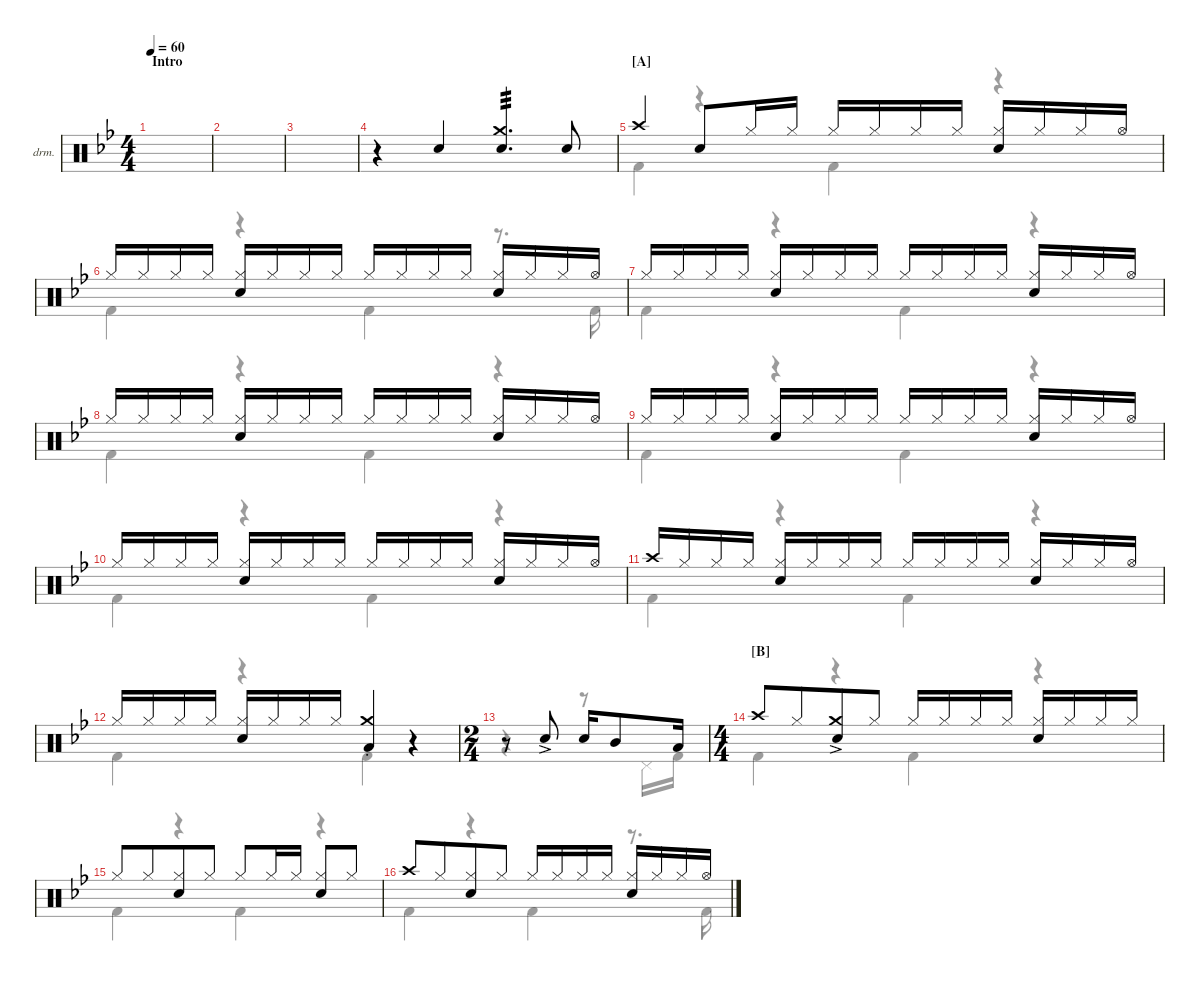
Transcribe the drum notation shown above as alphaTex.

\defaultSystemsLayout 4
\hideDynamics
\bracketExtendMode nobrackets
\firstSystemTrackNameOrientation horizontal
\otherSystemsTrackNameOrientation horizontal
\track ("Drumkit" "drm.") {instrument percussion}
\staff {score}
\articulation defaults
\voice
\ts (4 4)
\section ("" "Intro")
\tempo 60
\clef neutral
\ks bb
|
|
|
r.4{beam Down} "Snare (hit) 2"{acc forcenatural}.4{beam Up} ("Snare (hit) 2"{acc forcenatural} "Crash medium (hit)"{acc forcenatural}).4{d tp 3 beam Up} "Snare (hit) 2"{acc forcenatural}.8{beam Up} |
\section ("A" "")
"Crash high (hit)"{acc forcenatural}.4{beam Up} "Snare (hit) 2"{acc forcenatural}.8{beam Up} "Hi-Hat (closed)"{acc forcenatural}.16{beam Up} "Hi-Hat (closed)"{acc forcenatural}.16{dy mp beam Up} "Hi-Hat (closed)"{acc forcenatural}.16{dy mf beam Up} "Hi-Hat (closed)"{acc forcenatural}.16{dy mp beam Up} "Hi-Hat (closed)"{acc forcenatural}.16{dy mf beam Up} "Hi-Hat (closed)"{acc forcenatural}.16{dy mp beam Up} ("Hi-Hat (closed)"{acc forcenatural} "Snare (hit) 2"{acc forcenatural}).16{dy mf beam Up} "Hi-Hat (closed)"{acc forcenatural}.16{dy mp beam Up} "Hi-Hat (closed)"{acc forcenatural}.16{dy mf beam Up} "Hi-Hat (open)"{acc forcenatural}.16{beam Up} |
"Hi-Hat (closed)"{acc forcenatural}.16{beam Up} "Hi-Hat (closed)"{acc forcenatural}.16{dy mp beam Up} "Hi-Hat (closed)"{acc forcenatural}.16{dy mf beam Up} "Hi-Hat (closed)"{acc forcenatural}.16{dy mp beam Up} ("Hi-Hat (closed)"{acc forcenatural} "Snare (hit) 2"{acc forcenatural}).16{dy mf beam Up} "Hi-Hat (closed)"{acc forcenatural}.16{dy mp beam Up} "Hi-Hat (closed)"{acc forcenatural}.16{dy mf beam Up} "Hi-Hat (closed)"{acc forcenatural}.16{dy mp beam Up} "Hi-Hat (closed)"{acc forcenatural}.16{dy mf beam Up} "Hi-Hat (closed)"{acc forcenatural}.16{dy mp beam Up} "Hi-Hat (closed)"{acc forcenatural}.16{dy mf beam Up} "Hi-Hat (closed)"{acc forcenatural}.16{dy mp beam Up} ("Hi-Hat (closed)"{acc forcenatural} "Snare (hit) 2"{acc forcenatural}).16{dy mf beam Up} "Hi-Hat (closed)"{acc forcenatural}.16{dy mp beam Up} "Hi-Hat (closed)"{acc forcenatural}.16{dy mf beam Up} "Hi-Hat (open)"{acc forcenatural}.16{beam Up} |
"Hi-Hat (closed)"{acc forcenatural}.16{beam Up} "Hi-Hat (closed)"{acc forcenatural}.16{dy mp beam Up} "Hi-Hat (closed)"{acc forcenatural}.16{dy mf beam Up} "Hi-Hat (closed)"{acc forcenatural}.16{dy mp beam Up} ("Hi-Hat (closed)"{acc forcenatural} "Snare (hit) 2"{acc forcenatural}).16{dy mf beam Up} "Hi-Hat (closed)"{acc forcenatural}.16{dy mp beam Up} "Hi-Hat (closed)"{acc forcenatural}.16{dy mf beam Up} "Hi-Hat (closed)"{acc forcenatural}.16{dy mp beam Up} "Hi-Hat (closed)"{acc forcenatural}.16{dy mf beam Up} "Hi-Hat (closed)"{acc forcenatural}.16{dy mp beam Up} "Hi-Hat (closed)"{acc forcenatural}.16{dy mf beam Up} "Hi-Hat (closed)"{acc forcenatural}.16{dy mp beam Up} ("Hi-Hat (closed)"{acc forcenatural} "Snare (hit) 2"{acc forcenatural}).16{dy mf beam Up} "Hi-Hat (closed)"{acc forcenatural}.16{dy mp beam Up} "Hi-Hat (closed)"{acc forcenatural}.16{dy mf beam Up} "Hi-Hat (open)"{acc forcenatural}.16{beam Up} |
"Hi-Hat (closed)"{acc forcenatural}.16{beam Up} "Hi-Hat (closed)"{acc forcenatural}.16{dy mp beam Up} "Hi-Hat (closed)"{acc forcenatural}.16{dy mf beam Up} "Hi-Hat (closed)"{acc forcenatural}.16{dy mp beam Up} ("Hi-Hat (closed)"{acc forcenatural} "Snare (hit) 2"{acc forcenatural}).16{dy mf beam Up} "Hi-Hat (closed)"{acc forcenatural}.16{dy mp beam Up} "Hi-Hat (closed)"{acc forcenatural}.16{dy mf beam Up} "Hi-Hat (closed)"{acc forcenatural}.16{dy mp beam Up} "Hi-Hat (closed)"{acc forcenatural}.16{dy mf beam Up} "Hi-Hat (closed)"{acc forcenatural}.16{dy mp beam Up} "Hi-Hat (closed)"{acc forcenatural}.16{dy mf beam Up} "Hi-Hat (closed)"{acc forcenatural}.16{dy mp beam Up} ("Hi-Hat (closed)"{acc forcenatural} "Snare (hit) 2"{acc forcenatural}).16{dy mf beam Up} "Hi-Hat (closed)"{acc forcenatural}.16{dy mp beam Up} "Hi-Hat (closed)"{acc forcenatural}.16{dy mf beam Up} "Hi-Hat (open)"{acc forcenatural}.16{beam Up} |
"Hi-Hat (closed)"{acc forcenatural}.16{beam Up} "Hi-Hat (closed)"{acc forcenatural}.16{dy mp beam Up} "Hi-Hat (closed)"{acc forcenatural}.16{dy mf beam Up} "Hi-Hat (closed)"{acc forcenatural}.16{dy mp beam Up} ("Hi-Hat (closed)"{acc forcenatural} "Snare (hit) 2"{acc forcenatural}).16{dy mf beam Up} "Hi-Hat (closed)"{acc forcenatural}.16{dy mp beam Up} "Hi-Hat (closed)"{acc forcenatural}.16{dy mf beam Up} "Hi-Hat (closed)"{acc forcenatural}.16{dy mp beam Up} "Hi-Hat (closed)"{acc forcenatural}.16{dy mf beam Up} "Hi-Hat (closed)"{acc forcenatural}.16{dy mp beam Up} "Hi-Hat (closed)"{acc forcenatural}.16{dy mf beam Up} "Hi-Hat (closed)"{acc forcenatural}.16{dy mp beam Up} ("Hi-Hat (closed)"{acc forcenatural} "Snare (hit) 2"{acc forcenatural}).16{dy mf beam Up} "Hi-Hat (closed)"{acc forcenatural}.16{dy mp beam Up} "Hi-Hat (closed)"{acc forcenatural}.16{dy mf beam Up} "Hi-Hat (open)"{acc forcenatural}.16{beam Up} |
"Hi-Hat (closed)"{acc forcenatural}.16{beam Up} "Hi-Hat (closed)"{acc forcenatural}.16{dy mp beam Up} "Hi-Hat (closed)"{acc forcenatural}.16{dy mf beam Up} "Hi-Hat (closed)"{acc forcenatural}.16{dy mp beam Up} ("Hi-Hat (closed)"{acc forcenatural} "Snare (hit) 2"{acc forcenatural}).16{dy mf beam Up} "Hi-Hat (closed)"{acc forcenatural}.16{dy mp beam Up} "Hi-Hat (closed)"{acc forcenatural}.16{dy mf beam Up} "Hi-Hat (closed)"{acc forcenatural}.16{dy mp beam Up} "Hi-Hat (closed)"{acc forcenatural}.16{dy mf beam Up} "Hi-Hat (closed)"{acc forcenatural}.16{dy mp beam Up} "Hi-Hat (closed)"{acc forcenatural}.16{dy mf beam Up} "Hi-Hat (closed)"{acc forcenatural}.16{dy mp beam Up} ("Hi-Hat (closed)"{acc forcenatural} "Snare (hit) 2"{acc forcenatural}).16{dy mf beam Up} "Hi-Hat (closed)"{acc forcenatural}.16{dy mp beam Up} "Hi-Hat (closed)"{acc forcenatural}.16{dy mf beam Up} "Hi-Hat (open)"{acc forcenatural}.16{beam Up} |
"Crash high (hit)"{acc forcenatural}.16{beam Up} "Hi-Hat (closed)"{acc forcenatural}.16{dy mp beam Up} "Hi-Hat (closed)"{acc forcenatural}.16{dy mf beam Up} "Hi-Hat (closed)"{acc forcenatural}.16{dy mp beam Up} ("Hi-Hat (closed)"{acc forcenatural} "Snare (hit) 2"{acc forcenatural}).16{dy mf beam Up} "Hi-Hat (closed)"{acc forcenatural}.16{dy mp beam Up} "Hi-Hat (closed)"{acc forcenatural}.16{dy mf beam Up} "Hi-Hat (closed)"{acc forcenatural}.16{dy mp beam Up} "Hi-Hat (closed)"{acc forcenatural}.16{dy mf beam Up} "Hi-Hat (closed)"{acc forcenatural}.16{dy mp beam Up} "Hi-Hat (closed)"{acc forcenatural}.16{dy mf beam Up} "Hi-Hat (closed)"{acc forcenatural}.16{dy mp beam Up} ("Hi-Hat (closed)"{acc forcenatural} "Snare (hit) 2"{acc forcenatural}).16{dy mf beam Up} "Hi-Hat (closed)"{acc forcenatural}.16{dy mp beam Up} "Hi-Hat (closed)"{acc forcenatural}.16{dy mf beam Up} "Hi-Hat (open)"{acc forcenatural}.16{beam Up} |
"Hi-Hat (closed)"{acc forcenatural}.16{beam Up} "Hi-Hat (closed)"{acc forcenatural}.16{dy mp beam Up} "Hi-Hat (closed)"{acc forcenatural}.16{dy mf beam Up} "Hi-Hat (closed)"{acc forcenatural}.16{dy mp beam Up} ("Hi-Hat (closed)"{acc forcenatural} "Snare (hit) 2"{acc forcenatural}).16{dy mf beam Up} "Hi-Hat (closed)"{acc forcenatural}.16{dy mp beam Up} "Hi-Hat (closed)"{acc forcenatural}.16{dy mf beam Up} "Hi-Hat (closed)"{acc forcenatural}.16{dy mp beam Up} ("Crash medium (choke)"{acc forcenatural} "Low Tom (hit)"{acc forcenatural}).4{dy mf beam Up} r.4{beam Up} |
\ts (2 4)
\beaming (8 2 2)
r.8{beam Up} "Snare (hit) 2"{ac acc forcenatural}.8{beam Up} "Snare (hit) 2"{acc forcenatural}.16{beam Up} "Mid Tom (hit)"{acc forcenatural}.8{beam Up} "Low Tom (hit)"{acc forcenatural}.16{dy ff beam Up} |
\ts (4 4)
\section ("B" "")
"Crash high (hit)"{acc forcenatural}.8{dy mf beam Up} "Hi-Hat (closed)"{acc forcenatural}.8{beam Up beam merge} ("Crash medium (hit)"{ac acc forcenatural} "Snare (hit) 2"{acc forcenatural}).8{beam Up} "Hi-Hat (closed)"{acc forcenatural}.8{beam Up} "Hi-Hat (closed)"{acc forcenatural}.16{beam Up} "Hi-Hat (closed)"{acc forcenatural}.16{dy mp beam Up} "Hi-Hat (closed)"{acc forcenatural}.16{dy mf beam Up} "Hi-Hat (closed)"{acc forcenatural}.16{dy mp beam Up} ("Hi-Hat (closed)"{acc forcenatural} "Snare (hit) 2"{acc forcenatural}).16{dy mf beam Up} "Hi-Hat (closed)"{acc forcenatural}.16{dy mp beam Up} "Hi-Hat (closed)"{acc forcenatural}.16{dy mf beam Up} "Hi-Hat (closed)"{acc forcenatural}.16{dy mp beam Up} |
"Hi-Hat (closed)"{acc forcenatural}.8{dy mf beam Up} "Hi-Hat (closed)"{acc forcenatural}.8{dy mp beam Up beam merge} ("Hi-Hat (closed)"{acc forcenatural} "Snare (hit) 2"{acc forcenatural}).8{dy mf beam Up} "Hi-Hat (closed)"{acc forcenatural}.8{dy mp beam Up} "Hi-Hat (closed)"{acc forcenatural}.8{dy mf beam Up} "Hi-Hat (closed)"{acc forcenatural}.16{beam Up} "Hi-Hat (closed)"{acc forcenatural}.16{dy mp beam Up} ("Hi-Hat (closed)"{acc forcenatural} "Snare (hit) 2"{acc forcenatural}).8{dy mf beam Up} "Hi-Hat (closed)"{acc forcenatural}.8{beam Up} |
"Crash high (hit)"{acc forcenatural}.8{beam Up} "Hi-Hat (closed)"{acc forcenatural}.8{beam Up beam merge} ("Snare (hit) 2"{acc forcenatural} "Hi-Hat (closed)"{acc forcenatural}).8{beam Up} "Hi-Hat (closed)"{acc forcenatural}.8{beam Up} "Hi-Hat (closed)"{acc forcenatural}.16{beam Up} "Hi-Hat (closed)"{acc forcenatural}.16{dy mp beam Up} "Hi-Hat (closed)"{acc forcenatural}.16{dy mf beam Up} "Hi-Hat (closed)"{acc forcenatural}.16{dy mp beam Up} ("Hi-Hat (closed)"{acc forcenatural} "Snare (hit) 2"{acc forcenatural}).16{dy mf beam Up} "Hi-Hat (closed)"{acc forcenatural}.16{dy mp beam Up} "Hi-Hat (closed)"{acc forcenatural}.16{dy mf beam Up} "Hi-Hat (open)"{acc forcenatural}.16{beam Up}
\voice
\clef neutral
\ottava regular
\simile none
\ks bb
|
|
|
|
"Kick (hit) 2"{acc forcenatural}.4{beam Down} r.4{beam Down} "Kick (hit) 2"{acc forcenatural}.4{beam Down} r.4{beam Down} |
"Kick (hit) 2"{acc forcenatural}.4{beam Down} r.4{beam Down} "Kick (hit) 2"{acc forcenatural}.4{beam Down} r.8{d beam Down} "Kick (hit) 2"{acc forcenatural}.16{beam Down} |
"Kick (hit) 2"{acc forcenatural}.4{beam Down} r.4{beam Down} "Kick (hit) 2"{acc forcenatural}.4{beam Down} r.4{beam Down} |
"Kick (hit) 2"{acc forcenatural}.4{beam Down} r.4{beam Down} "Kick (hit) 2"{acc forcenatural}.4{beam Down} r.4{beam Down} |
"Kick (hit) 2"{acc forcenatural}.4{beam Down} r.4{beam Down} "Kick (hit) 2"{acc forcenatural}.4{beam Down} r.4{beam Down} |
"Kick (hit) 2"{acc forcenatural}.4{beam Down} r.4{beam Down} "Kick (hit) 2"{acc forcenatural}.4{beam Down} r.4{beam Down} |
"Kick (hit) 2"{acc forcenatural}.4{beam Down} r.4{beam Down} "Kick (hit) 2"{acc forcenatural}.4{beam Down} r.4{beam Down} |
"Kick (hit) 2"{acc forcenatural}.4{beam Down} r.4{beam Down} "Kick (hit) 2"{acc forcenatural}.4{beam Down} r.4{beam Down} |
r.4{beam Down} r.8{beam Down} "Pedal Hi-Hat (hit)"{acc forcenatural}.16{beam Down} "Kick (hit) 2"{acc forcenatural}.16{beam Down} |
"Kick (hit) 2"{acc forcenatural}.4{beam Down} r.4{beam Down} "Kick (hit) 2"{acc forcenatural}.4{beam Down} r.4{beam Down} |
"Kick (hit) 2"{acc forcenatural}.4{beam Down} r.4{beam Down} "Kick (hit) 2"{acc forcenatural}.4{beam Down} r.4{beam Down} |
"Kick (hit) 2"{acc forcenatural}.4{beam Down} r.4{beam Down} "Kick (hit) 2"{acc forcenatural}.4{beam Down} r.8{d beam Down} "Kick (hit) 2"{acc forcenatural}.16{beam Down}
